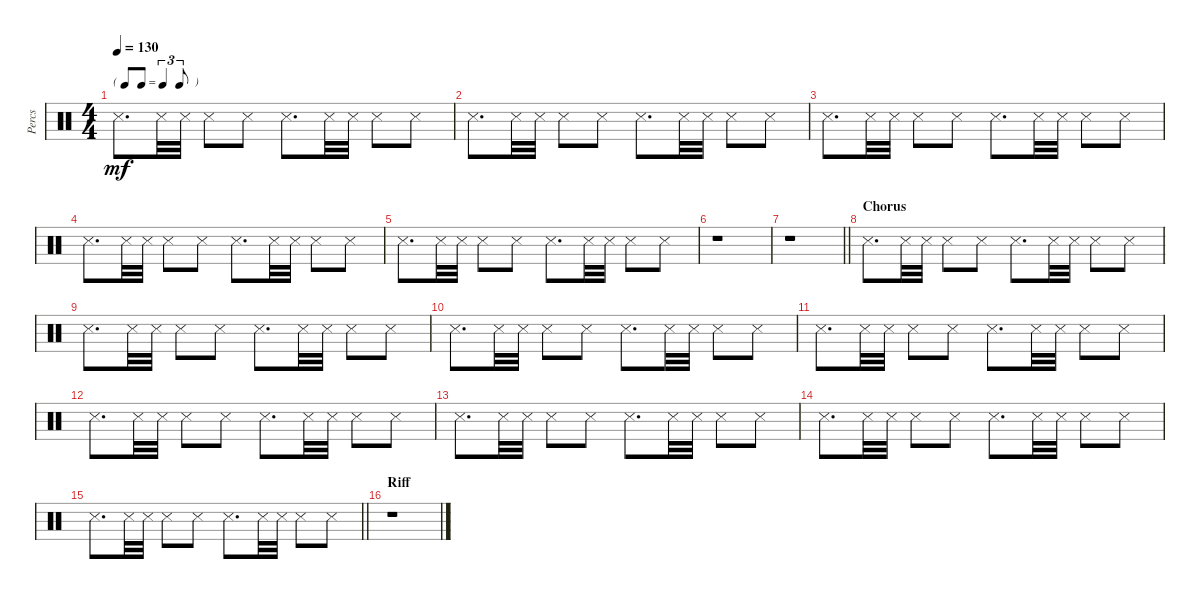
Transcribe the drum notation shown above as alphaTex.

\track ("Percs" "Percs") {instrument percussion}
\staff {score}
\articulation defaults
\ts (4 4)
\tf triplet8th
\tempo 130
\clef neutral
\ks c "Snare (side stick) 3".8{d dy mf} "Snare (side stick) 3".32 "Snare (side stick) 3".32 "Snare (side stick) 3".8 "Snare (side stick) 3".8 "Snare (side stick) 3".8{d} "Snare (side stick) 3".32 "Snare (side stick) 3".32 "Snare (side stick) 3".8 "Snare (side stick) 3".8
|
"Snare (side stick) 3".8{d} "Snare (side stick) 3".32 "Snare (side stick) 3".32 "Snare (side stick) 3".8 "Snare (side stick) 3".8 "Snare (side stick) 3".8{d} "Snare (side stick) 3".32 "Snare (side stick) 3".32 "Snare (side stick) 3".8 "Snare (side stick) 3".8 |
"Snare (side stick) 3".8{d} "Snare (side stick) 3".32 "Snare (side stick) 3".32 "Snare (side stick) 3".8 "Snare (side stick) 3".8 "Snare (side stick) 3".8{d} "Snare (side stick) 3".32 "Snare (side stick) 3".32 "Snare (side stick) 3".8 "Snare (side stick) 3".8 |
"Snare (side stick) 3".8{d} "Snare (side stick) 3".32 "Snare (side stick) 3".32 "Snare (side stick) 3".8 "Snare (side stick) 3".8 "Snare (side stick) 3".8{d} "Snare (side stick) 3".32 "Snare (side stick) 3".32 "Snare (side stick) 3".8 "Snare (side stick) 3".8 |
"Snare (side stick) 3".8{d} "Snare (side stick) 3".32 "Snare (side stick) 3".32 "Snare (side stick) 3".8 "Snare (side stick) 3".8 "Snare (side stick) 3".8{d} "Snare (side stick) 3".32 "Snare (side stick) 3".32 "Snare (side stick) 3".8 "Snare (side stick) 3".8 |
r.1 |
\barLineRight lightlight
r.1 |
\section ("" "Chorus")
"Snare (side stick) 3".8{d} "Snare (side stick) 3".32 "Snare (side stick) 3".32 "Snare (side stick) 3".8 "Snare (side stick) 3".8 "Snare (side stick) 3".8{d} "Snare (side stick) 3".32 "Snare (side stick) 3".32 "Snare (side stick) 3".8 "Snare (side stick) 3".8 |
"Snare (side stick) 3".8{d} "Snare (side stick) 3".32 "Snare (side stick) 3".32 "Snare (side stick) 3".8 "Snare (side stick) 3".8 "Snare (side stick) 3".8{d} "Snare (side stick) 3".32 "Snare (side stick) 3".32 "Snare (side stick) 3".8 "Snare (side stick) 3".8 |
"Snare (side stick) 3".8{d} "Snare (side stick) 3".32 "Snare (side stick) 3".32 "Snare (side stick) 3".8 "Snare (side stick) 3".8 "Snare (side stick) 3".8{d} "Snare (side stick) 3".32 "Snare (side stick) 3".32 "Snare (side stick) 3".8 "Snare (side stick) 3".8 |
"Snare (side stick) 3".8{d} "Snare (side stick) 3".32 "Snare (side stick) 3".32 "Snare (side stick) 3".8 "Snare (side stick) 3".8 "Snare (side stick) 3".8{d} "Snare (side stick) 3".32 "Snare (side stick) 3".32 "Snare (side stick) 3".8 "Snare (side stick) 3".8 |
"Snare (side stick) 3".8{d} "Snare (side stick) 3".32 "Snare (side stick) 3".32 "Snare (side stick) 3".8 "Snare (side stick) 3".8 "Snare (side stick) 3".8{d} "Snare (side stick) 3".32 "Snare (side stick) 3".32 "Snare (side stick) 3".8 "Snare (side stick) 3".8 |
"Snare (side stick) 3".8{d} "Snare (side stick) 3".32 "Snare (side stick) 3".32 "Snare (side stick) 3".8 "Snare (side stick) 3".8 "Snare (side stick) 3".8{d} "Snare (side stick) 3".32 "Snare (side stick) 3".32 "Snare (side stick) 3".8 "Snare (side stick) 3".8 |
"Snare (side stick) 3".8{d} "Snare (side stick) 3".32 "Snare (side stick) 3".32 "Snare (side stick) 3".8 "Snare (side stick) 3".8 "Snare (side stick) 3".8{d} "Snare (side stick) 3".32 "Snare (side stick) 3".32 "Snare (side stick) 3".8 "Snare (side stick) 3".8 |
\barLineRight lightlight "Snare (side stick) 3".8{d} "Snare (side stick) 3".32 "Snare (side stick) 3".32 "Snare (side stick) 3".8 "Snare (side stick) 3".8 "Snare (side stick) 3".8{d} "Snare (side stick) 3".32 "Snare (side stick) 3".32 "Snare (side stick) 3".8 "Snare (side stick) 3".8
|
\section ("" "Riff")
r.1
